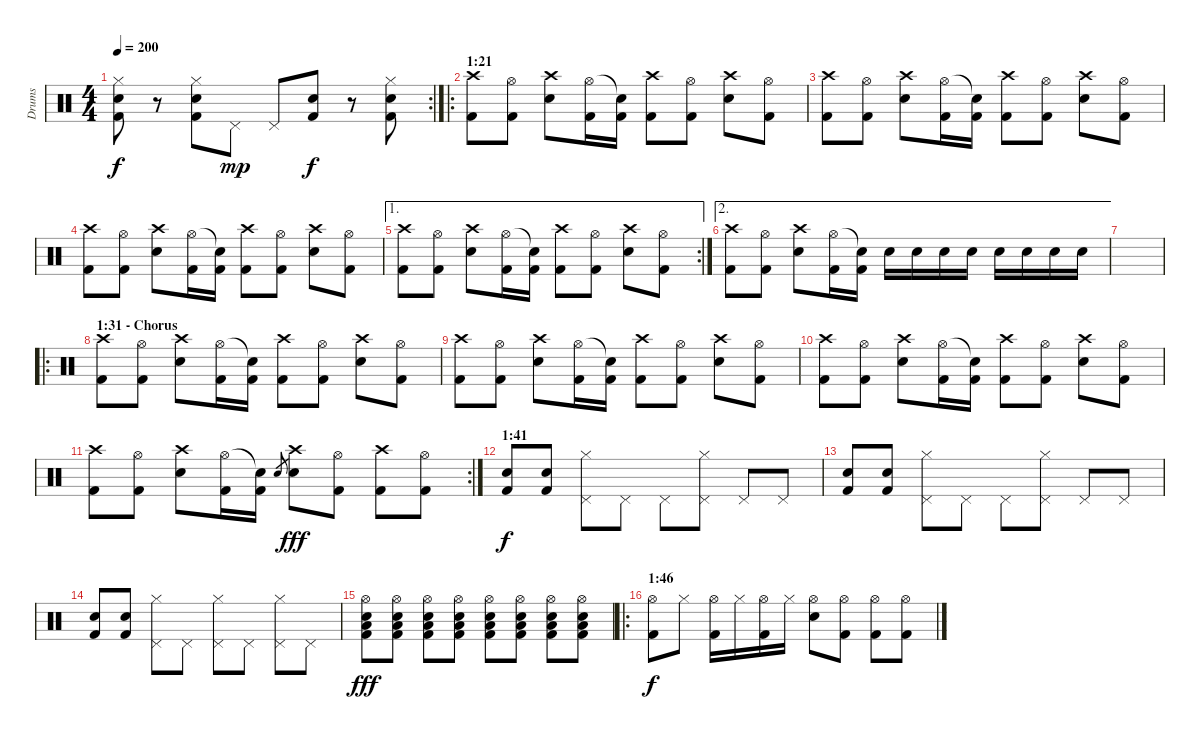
\track ("Drums" "Drums") {instrument percussion}
\staff {score}
\articulation defaults
\rc 2
\ts (4 4)
\tempo 200
\clef neutral
\ks c
("Hi-Hat (closed)" "Electric Snare (hit)" "Kick (hit) 2").8{dy f} r.8 ("Hi-Hat (closed)" "Electric Snare (hit)" "Kick (hit) 2").8 "Pedal Hi-Hat (hit)".8{dy mp} "Pedal Hi-Hat (hit)".8 ("Electric Snare (hit)" "Kick (hit) 2").8{dy f} r.8 ("Hi-Hat (closed)" "Electric Snare (hit)" "Kick (hit) 2").8 |
\ro
\section ("" "1:21")
("Crash high (hit)" "Kick (hit) 2").8 ("Hi-Hat (open)" "Kick (hit) 2").8 ("Crash high (hit)" "Electric Snare (hit)").8 ("Hi-Hat (open)" "Kick (hit) 2").16 ("Snare (hit)"{t} "Kick (hit) 2").16 ("Crash high (hit)" "Kick (hit) 2").8 ("Hi-Hat (open)" "Kick (hit) 2").8 ("Crash high (hit)" "Electric Snare (hit)").8 ("Hi-Hat (open)" "Kick (hit) 2").8 |
("Crash high (hit)" "Kick (hit) 2").8 ("Hi-Hat (open)" "Kick (hit) 2").8 ("Crash high (hit)" "Electric Snare (hit)").8 ("Hi-Hat (open)" "Kick (hit) 2").16 ("Snare (hit)"{t} "Kick (hit) 2").16 ("Crash high (hit)" "Kick (hit) 2").8 ("Hi-Hat (open)" "Kick (hit) 2").8 ("Crash high (hit)" "Electric Snare (hit)").8 ("Hi-Hat (open)" "Kick (hit) 2").8 |
("Crash high (hit)" "Kick (hit) 2").8 ("Hi-Hat (open)" "Kick (hit) 2").8 ("Crash high (hit)" "Electric Snare (hit)").8 ("Hi-Hat (open)" "Kick (hit) 2").16 ("Snare (hit)"{t} "Kick (hit) 2").16 ("Crash high (hit)" "Kick (hit) 2").8 ("Hi-Hat (open)" "Kick (hit) 2").8 ("Crash high (hit)" "Electric Snare (hit)").8 ("Hi-Hat (open)" "Kick (hit) 2").8 |
\ae 1
\rc 2
("Crash high (hit)" "Kick (hit) 2").8 ("Hi-Hat (open)" "Kick (hit) 2").8 ("Crash high (hit)" "Electric Snare (hit)").8 ("Hi-Hat (open)" "Kick (hit) 2").16 ("Snare (hit)"{t} "Kick (hit) 2").16 ("Crash high (hit)" "Kick (hit) 2").8 ("Hi-Hat (open)" "Kick (hit) 2").8 ("Crash high (hit)" "Electric Snare (hit)").8 ("Hi-Hat (open)" "Kick (hit) 2").8 |
\ae 2
("Crash high (hit)" "Kick (hit) 2").8 ("Hi-Hat (open)" "Kick (hit) 2").8 ("Crash high (hit)" "Electric Snare (hit)").8 ("Hi-Hat (open)" "Kick (hit) 2").16 ("Snare (hit)"{t} "Kick (hit) 2").16 "Electric Snare (hit)".16 "Electric Snare (hit)".16 "Electric Snare (hit)".16 "Electric Snare (hit)".16 "Electric Snare (hit)".16 "Electric Snare (hit)".16 "Electric Snare (hit)".16 "Electric Snare (hit)".16 |
|
\ro
\section ("" "1:31 - Chorus")
("Crash high (hit)" "Kick (hit) 2").8 ("Hi-Hat (open)" "Kick (hit) 2").8 ("Crash high (hit)" "Electric Snare (hit)").8 ("Hi-Hat (open)" "Kick (hit) 2").16 ("Snare (hit)"{t} "Kick (hit) 2").16 ("Crash high (hit)" "Kick (hit) 2").8 ("Hi-Hat (open)" "Kick (hit) 2").8 ("Crash high (hit)" "Electric Snare (hit)").8 ("Hi-Hat (open)" "Kick (hit) 2").8 |
("Crash high (hit)" "Kick (hit) 2").8 ("Hi-Hat (open)" "Kick (hit) 2").8 ("Crash high (hit)" "Electric Snare (hit)").8 ("Hi-Hat (open)" "Kick (hit) 2").16 ("Snare (hit)"{t} "Kick (hit) 2").16 ("Crash high (hit)" "Kick (hit) 2").8 ("Hi-Hat (open)" "Kick (hit) 2").8 ("Crash high (hit)" "Electric Snare (hit)").8 ("Hi-Hat (open)" "Kick (hit) 2").8 |
("Crash high (hit)" "Kick (hit) 2").8 ("Hi-Hat (open)" "Kick (hit) 2").8 ("Crash high (hit)" "Electric Snare (hit)").8 ("Hi-Hat (open)" "Kick (hit) 2").16 ("Snare (hit)"{t} "Kick (hit) 2").16 ("Crash high (hit)" "Kick (hit) 2").8 ("Hi-Hat (open)" "Kick (hit) 2").8 ("Crash high (hit)" "Electric Snare (hit)").8 ("Hi-Hat (open)" "Kick (hit) 2").8 |
\rc 2
("Crash high (hit)" "Kick (hit) 2").8 ("Hi-Hat (open)" "Kick (hit) 2").8 ("Crash high (hit)" "Electric Snare (hit)").8 ("Hi-Hat (open)" "Kick (hit) 2").16 ("Snare (hit)"{t} "Kick (hit) 2").16 "Electric Snare (hit)".8{gr} ("Crash high (hit)" "Electric Snare (hit)").8{dy fff} ("Hi-Hat (open)" "Kick (hit) 2").8 ("Crash high (hit)" "Kick (hit) 2").8 ("Hi-Hat (open)" "Kick (hit) 2").8 |
\section ("" "1:41")
("Electric Snare (hit)" "Kick (hit) 2").8{dy f} ("Electric Snare (hit)" "Kick (hit) 2").8 ("Hi-Hat (closed)" "Pedal Hi-Hat (hit)").8 "Pedal Hi-Hat (hit)".8 "Pedal Hi-Hat (hit)".8 ("Hi-Hat (closed)" "Pedal Hi-Hat (hit)").8 "Pedal Hi-Hat (hit)".8 "Pedal Hi-Hat (hit)".8 |
("Electric Snare (hit)" "Kick (hit) 2").8 ("Electric Snare (hit)" "Kick (hit) 2").8 ("Hi-Hat (closed)" "Pedal Hi-Hat (hit)").8 "Pedal Hi-Hat (hit)".8 "Pedal Hi-Hat (hit)".8 ("Hi-Hat (closed)" "Pedal Hi-Hat (hit)").8 "Pedal Hi-Hat (hit)".8 "Pedal Hi-Hat (hit)".8 |
("Electric Snare (hit)" "Kick (hit) 2").8 ("Electric Snare (hit)" "Kick (hit) 2").8 ("Hi-Hat (closed)" "Pedal Hi-Hat (hit)").8 "Pedal Hi-Hat (hit)".8 ("Hi-Hat (closed)" "Pedal Hi-Hat (hit)").8 "Pedal Hi-Hat (hit)".8 ("Hi-Hat (closed)" "Pedal Hi-Hat (hit)").8 "Pedal Hi-Hat (hit)".8 |
("Hi-Hat (open)" "Low Floor Tom (hit)" "Electric Snare (hit)" "Kick (hit) 2").8{dy fff} ("Hi-Hat (open)" "Low Floor Tom (hit)" "Electric Snare (hit)" "Kick (hit) 2").8 ("Hi-Hat (open)" "Low Floor Tom (hit)" "Electric Snare (hit)" "Kick (hit) 2").8 ("Hi-Hat (open)" "Low Floor Tom (hit)" "Electric Snare (hit)" "Kick (hit) 2").8 ("Hi-Hat (open)" "Low Floor Tom (hit)" "Electric Snare (hit)" "Kick (hit) 2").8 ("Hi-Hat (open)" "Low Floor Tom (hit)" "Electric Snare (hit)" "Kick (hit) 2").8 ("Hi-Hat (open)" "Low Floor Tom (hit)" "Electric Snare (hit)" "Kick (hit) 2").8 ("Hi-Hat (open)" "Low Floor Tom (hit)" "Electric Snare (hit)" "Kick (hit) 2").8 |
\ro
\section ("" "1:46")
("Hi-Hat (open)" "Kick (hit) 2").8{dy f} "Hi-Hat (closed)".8 ("Hi-Hat (open)" "Kick (hit) 2").16 "Hi-Hat (closed)".16 ("Hi-Hat (open)" "Kick (hit) 2").16 "Hi-Hat (closed)".16 ("Hi-Hat (open)" "Electric Snare (hit)").8 ("Hi-Hat (open)" "Kick (hit) 2").8 ("Hi-Hat (open)" "Kick (hit) 2").8 ("Hi-Hat (open)" "Kick (hit) 2").8
